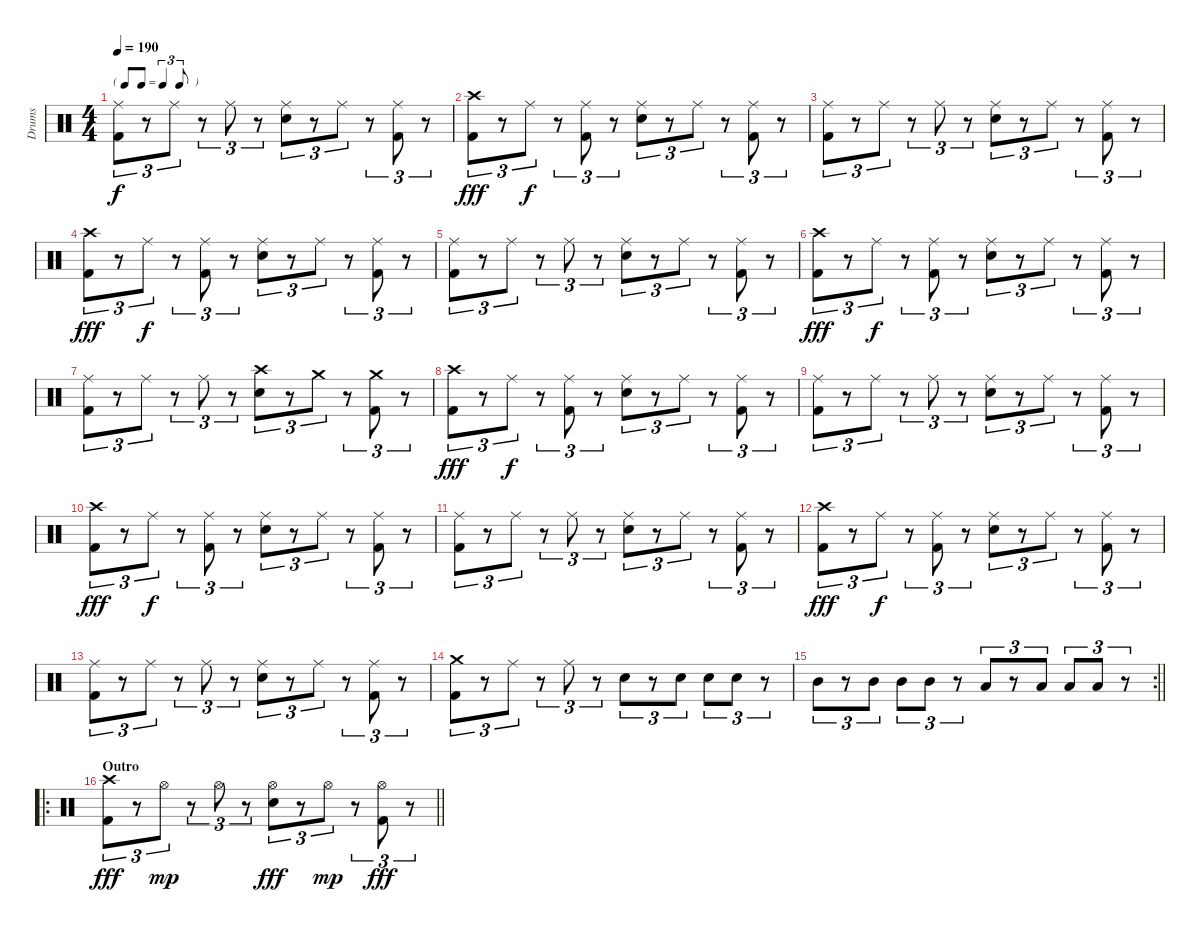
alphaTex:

\track ("Drums" "Drums") {instrument percussion}
\staff {score}
\articulation defaults
\ts (4 4)
\tf triplet8th
\tempo 190
\clef neutral
\ks c
("Ride (middle)" "Kick (hit) 2").8{tu (3 2) dy f} r.8{tu (3 2)} "Ride (middle)".8{tu (3 2)} r.8{tu (3 2)} "Ride (middle)".8{tu (3 2)} r.8{tu (3 2)} ("Ride (middle)" "Electric Snare (hit)").8{tu (3 2)} r.8{tu (3 2)} "Ride (middle)".8{tu (3 2)} r.8{tu (3 2)} ("Ride (middle)" "Kick (hit) 2").8{tu (3 2)} r.8{tu (3 2)} |
("Crash high (hit)" "Kick (hit) 2").8{tu (3 2) dy fff} r.8{tu (3 2)} "Ride (middle)".8{tu (3 2) dy f} r.8{tu (3 2)} ("Ride (middle)" "Kick (hit) 2").8{tu (3 2)} r.8{tu (3 2)} ("Ride (middle)" "Electric Snare (hit)").8{tu (3 2)} r.8{tu (3 2)} "Ride (middle)".8{tu (3 2)} r.8{tu (3 2)} ("Ride (middle)" "Kick (hit) 2").8{tu (3 2)} r.8{tu (3 2)} |
("Ride (middle)" "Kick (hit) 2").8{tu (3 2)} r.8{tu (3 2)} "Ride (middle)".8{tu (3 2)} r.8{tu (3 2)} "Ride (middle)".8{tu (3 2)} r.8{tu (3 2)} ("Ride (middle)" "Electric Snare (hit)").8{tu (3 2)} r.8{tu (3 2)} "Ride (middle)".8{tu (3 2)} r.8{tu (3 2)} ("Ride (middle)" "Kick (hit) 2").8{tu (3 2)} r.8{tu (3 2)} |
("Crash high (hit)" "Kick (hit) 2").8{tu (3 2) dy fff} r.8{tu (3 2)} "Ride (middle)".8{tu (3 2) dy f} r.8{tu (3 2)} ("Ride (middle)" "Kick (hit) 2").8{tu (3 2)} r.8{tu (3 2)} ("Ride (middle)" "Electric Snare (hit)").8{tu (3 2)} r.8{tu (3 2)} "Ride (middle)".8{tu (3 2)} r.8{tu (3 2)} ("Ride (middle)" "Kick (hit) 2").8{tu (3 2)} r.8{tu (3 2)} |
("Ride (middle)" "Kick (hit) 2").8{tu (3 2)} r.8{tu (3 2)} "Ride (middle)".8{tu (3 2)} r.8{tu (3 2)} "Ride (middle)".8{tu (3 2)} r.8{tu (3 2)} ("Ride (middle)" "Electric Snare (hit)").8{tu (3 2)} r.8{tu (3 2)} "Ride (middle)".8{tu (3 2)} r.8{tu (3 2)} ("Ride (middle)" "Kick (hit) 2").8{tu (3 2)} r.8{tu (3 2)} |
("Crash high (hit)" "Kick (hit) 2").8{tu (3 2) dy fff} r.8{tu (3 2)} "Ride (middle)".8{tu (3 2) dy f} r.8{tu (3 2)} ("Ride (middle)" "Kick (hit) 2").8{tu (3 2)} r.8{tu (3 2)} ("Ride (middle)" "Electric Snare (hit)").8{tu (3 2)} r.8{tu (3 2)} "Ride (middle)".8{tu (3 2)} r.8{tu (3 2)} ("Ride (middle)" "Kick (hit) 2").8{tu (3 2)} r.8{tu (3 2)} |
("Ride (middle)" "Kick (hit) 2").8{tu (3 2)} r.8{tu (3 2)} "Ride (middle)".8{tu (3 2)} r.8{tu (3 2)} "Ride (middle)".8{tu (3 2)} r.8{tu (3 2)} ("Crash high (hit)" "Electric Snare (hit)").8{tu (3 2)} r.8{tu (3 2)} "Crash medium (hit)".8{tu (3 2)} r.8{tu (3 2)} ("Crash medium (hit)" "Kick (hit) 2").8{tu (3 2)} r.8{tu (3 2)} |
("Crash high (hit)" "Kick (hit) 2").8{tu (3 2) dy fff} r.8{tu (3 2)} "Ride (middle)".8{tu (3 2) dy f} r.8{tu (3 2)} ("Ride (middle)" "Kick (hit) 2").8{tu (3 2)} r.8{tu (3 2)} ("Ride (middle)" "Electric Snare (hit)").8{tu (3 2)} r.8{tu (3 2)} "Ride (middle)".8{tu (3 2)} r.8{tu (3 2)} ("Ride (middle)" "Kick (hit) 2").8{tu (3 2)} r.8{tu (3 2)} |
("Ride (middle)" "Kick (hit) 2").8{tu (3 2)} r.8{tu (3 2)} "Ride (middle)".8{tu (3 2)} r.8{tu (3 2)} "Ride (middle)".8{tu (3 2)} r.8{tu (3 2)} ("Ride (middle)" "Electric Snare (hit)").8{tu (3 2)} r.8{tu (3 2)} "Ride (middle)".8{tu (3 2)} r.8{tu (3 2)} ("Ride (middle)" "Kick (hit) 2").8{tu (3 2)} r.8{tu (3 2)} |
("Crash high (hit)" "Kick (hit) 2").8{tu (3 2) dy fff} r.8{tu (3 2)} "Ride (middle)".8{tu (3 2) dy f} r.8{tu (3 2)} ("Ride (middle)" "Kick (hit) 2").8{tu (3 2)} r.8{tu (3 2)} ("Ride (middle)" "Electric Snare (hit)").8{tu (3 2)} r.8{tu (3 2)} "Ride (middle)".8{tu (3 2)} r.8{tu (3 2)} ("Ride (middle)" "Kick (hit) 2").8{tu (3 2)} r.8{tu (3 2)} |
("Ride (middle)" "Kick (hit) 2").8{tu (3 2)} r.8{tu (3 2)} "Ride (middle)".8{tu (3 2)} r.8{tu (3 2)} "Ride (middle)".8{tu (3 2)} r.8{tu (3 2)} ("Ride (middle)" "Electric Snare (hit)").8{tu (3 2)} r.8{tu (3 2)} "Ride (middle)".8{tu (3 2)} r.8{tu (3 2)} ("Ride (middle)" "Kick (hit) 2").8{tu (3 2)} r.8{tu (3 2)} |
("Crash high (hit)" "Kick (hit) 2").8{tu (3 2) dy fff} r.8{tu (3 2)} "Ride (middle)".8{tu (3 2) dy f} r.8{tu (3 2)} ("Ride (middle)" "Kick (hit) 2").8{tu (3 2)} r.8{tu (3 2)} ("Ride (middle)" "Electric Snare (hit)").8{tu (3 2)} r.8{tu (3 2)} "Ride (middle)".8{tu (3 2)} r.8{tu (3 2)} ("Ride (middle)" "Kick (hit) 2").8{tu (3 2)} r.8{tu (3 2)} |
("Ride (middle)" "Kick (hit) 2").8{tu (3 2)} r.8{tu (3 2)} "Ride (middle)".8{tu (3 2)} r.8{tu (3 2)} "Ride (middle)".8{tu (3 2)} r.8{tu (3 2)} ("Ride (middle)" "Electric Snare (hit)").8{tu (3 2)} r.8{tu (3 2)} "Ride (middle)".8{tu (3 2)} r.8{tu (3 2)} ("Ride (middle)" "Kick (hit) 2").8{tu (3 2)} r.8{tu (3 2)} |
("Crash medium (hit)" "Kick (hit) 2").8{tu (3 2)} r.8{tu (3 2)} "Ride (middle)".8{tu (3 2)} r.8{tu (3 2)} "Ride (middle)".8{tu (3 2)} r.8{tu (3 2)} "Electric Snare (hit)".8{tu (3 2)} r.8{tu (3 2)} "Electric Snare (hit)".8{tu (3 2)} "Electric Snare (hit)".8{tu (3 2)} "Electric Snare (hit)".8{tu (3 2)} r.8{tu (3 2)} |
\rc 2
\barLineRight lightlight "Mid Tom (hit)".8{tu (3 2)}
r.8{tu (3 2)} "Mid Tom (hit)".8{tu (3 2)} "Mid Tom (hit)".8{tu (3 2)} "Mid Tom (hit)".8{tu (3 2)} r.8{tu (3 2)} "Low Tom (hit)".8{tu (3 2)} r.8{tu (3 2)} "Low Tom (hit)".8{tu (3 2)} "Low Tom (hit)".8{tu (3 2)} "Low Tom (hit)".8{tu (3 2)} r.8{tu (3 2)} |
\ro
\section ("" "Outro")
\barLineRight lightlight
("Crash high (hit)" "Kick (hit) 2").8{tu (3 2) dy fff} r.8{tu (3 2)} "Hi-Hat (open)".8{tu (3 2) dy mp} r.8{tu (3 2)} "Hi-Hat (open)".8{tu (3 2)} r.8{tu (3 2)} ("Hi-Hat (open)" "Electric Snare (hit)").8{tu (3 2) dy fff} r.8{tu (3 2)} "Hi-Hat (open)".8{tu (3 2) dy mp} r.8{tu (3 2)} ("Hi-Hat (open)" "Kick (hit) 2").8{tu (3 2) dy fff} r.8{tu (3 2)}
